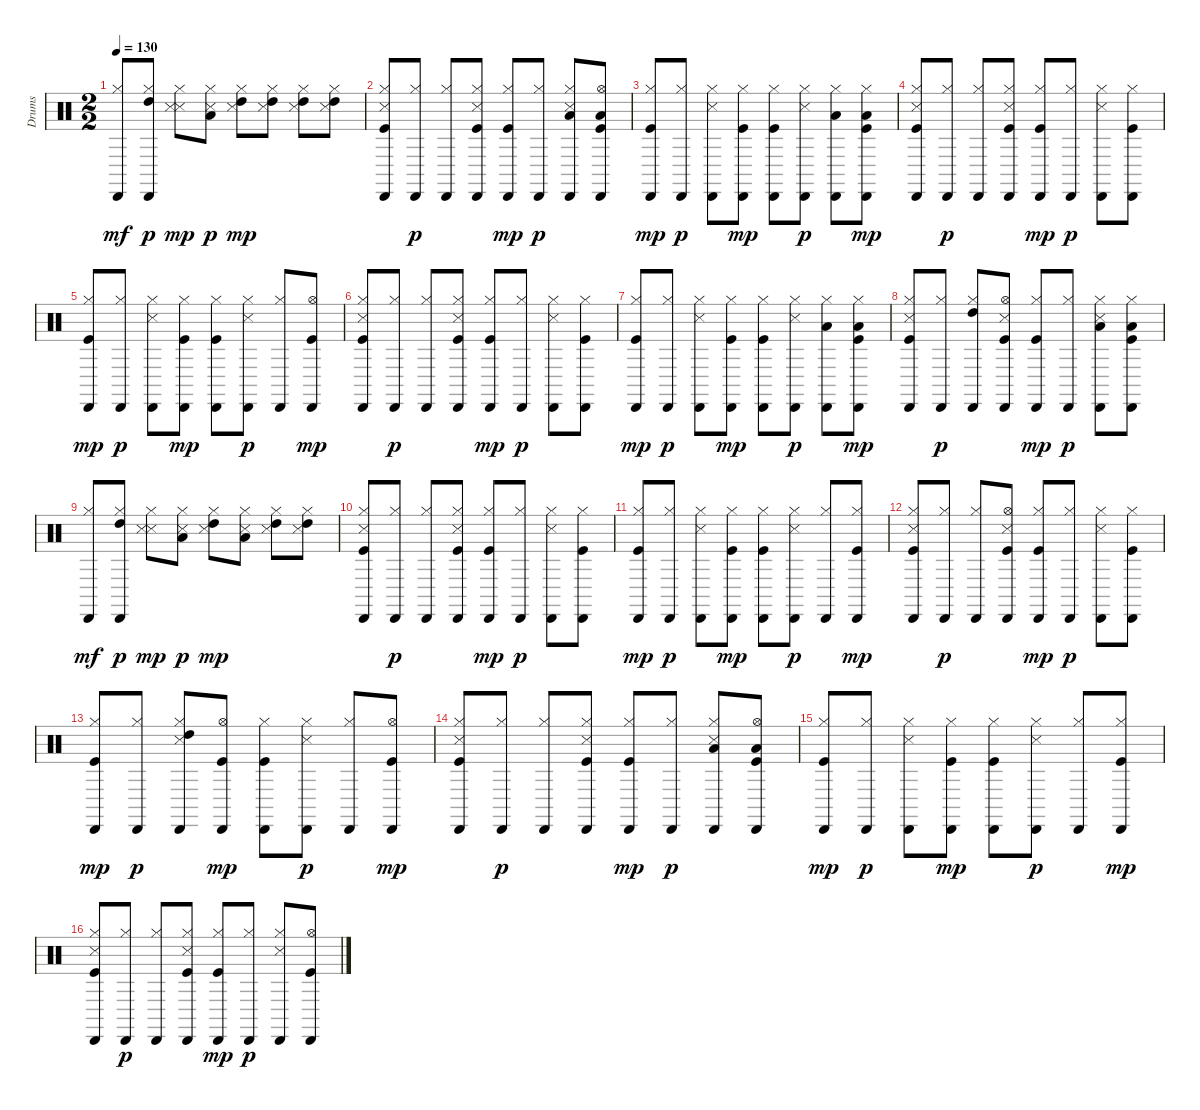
\track ("Drums" "Drums") {instrument percussion}
\staff {score}
\articulation defaults
\ts (2 2)
\tempo 130
\clef neutral
\ks c
("Hi-Hat (closed)" "Cabasa (hit)").8{dy mf} ("Hi-Hat (closed)" "High Tom (hit)" "Cabasa (hit)").8{dy p} ("Snare (side stick) 3" "Snare (side stick) 3" "Hi-Hat (closed)").8{dy mp} ("Snare (side stick) 3" "Hi-Hat (closed)" "Low Tom (hit)").8{dy p} ("Snare (side stick) 3" "Hi-Hat (closed)" "High Tom (hit)").8{dy mp} ("Snare (side stick) 3" "Hi-Hat (closed)" "High Tom (hit)").8 ("Snare (side stick) 3" "Hi-Hat (closed)" "High Tom (hit)").8 ("Snare (side stick) 3" "Hi-Hat (closed)" "High Tom (hit)").8 |
("Kick (hit)" "Snare (side stick) 3" "Hi-Hat (closed)" "Cabasa (hit)").8 ("Hi-Hat (closed)" "Cabasa (hit)").8{dy p} ("Hi-Hat (closed)" "Cabasa (hit)").8 ("Kick (hit)" "Snare (side stick) 3" "Hi-Hat (closed)" "Cabasa (hit)").8 ("Kick (hit)" "Hi-Hat (closed)" "Cabasa (hit)").8{dy mp} ("Hi-Hat (closed)" "Cabasa (hit)").8{dy p} ("Snare (side stick) 3" "Hi-Hat (closed)" "Low Tom (hit)" "Cabasa (hit)").8 ("Kick (hit)" "Low Tom (hit)" "Hi-Hat (open)" "Cabasa (hit)").8 |
("Kick (hit)" "Hi-Hat (closed)" "Cabasa (hit)").8{dy mp} ("Hi-Hat (closed)" "Cabasa (hit)").8{dy p} ("Snare (side stick) 3" "Hi-Hat (closed)" "Cabasa (hit)").8 ("Kick (hit)" "Hi-Hat (closed)" "Cabasa (hit)").8{dy mp} ("Kick (hit)" "Hi-Hat (closed)" "Cabasa (hit)").8 ("Snare (side stick) 3" "Hi-Hat (closed)" "Cabasa (hit)").8{dy p} ("Hi-Hat (closed)" "Low Tom (hit)" "Cabasa (hit)").8 ("Kick (hit)" "Hi-Hat (closed)" "Low Tom (hit)" "Cabasa (hit)").8{dy mp} |
("Kick (hit)" "Snare (side stick) 3" "Hi-Hat (closed)" "Cabasa (hit)").8 ("Hi-Hat (closed)" "Cabasa (hit)").8{dy p} ("Hi-Hat (closed)" "Cabasa (hit)").8 ("Kick (hit)" "Snare (side stick) 3" "Hi-Hat (closed)" "Cabasa (hit)").8 ("Kick (hit)" "Hi-Hat (closed)" "Cabasa (hit)").8{dy mp} ("Hi-Hat (closed)" "Cabasa (hit)").8{dy p} ("Snare (side stick) 3" "Hi-Hat (closed)" "Cabasa (hit)").8 ("Kick (hit)" "Hi-Hat (closed)" "Cabasa (hit)").8 |
("Kick (hit)" "Hi-Hat (closed)" "Cabasa (hit)").8{dy mp} ("Hi-Hat (closed)" "Cabasa (hit)").8{dy p} ("Snare (side stick) 3" "Hi-Hat (closed)" "Cabasa (hit)").8 ("Kick (hit)" "Hi-Hat (closed)" "Cabasa (hit)").8{dy mp} ("Kick (hit)" "Hi-Hat (closed)" "Cabasa (hit)").8 ("Snare (side stick) 3" "Hi-Hat (closed)" "Cabasa (hit)").8{dy p} ("Hi-Hat (closed)" "Cabasa (hit)").8 ("Kick (hit)" "Hi-Hat (open)" "Cabasa (hit)").8{dy mp} |
("Kick (hit)" "Snare (side stick) 3" "Hi-Hat (closed)" "Cabasa (hit)").8 ("Hi-Hat (closed)" "Cabasa (hit)").8{dy p} ("Hi-Hat (closed)" "Cabasa (hit)").8 ("Kick (hit)" "Snare (side stick) 3" "Hi-Hat (closed)" "Cabasa (hit)").8 ("Kick (hit)" "Hi-Hat (closed)" "Cabasa (hit)").8{dy mp} ("Hi-Hat (closed)" "Cabasa (hit)").8{dy p} ("Snare (side stick) 3" "Hi-Hat (closed)" "Cabasa (hit)").8 ("Kick (hit)" "Hi-Hat (closed)" "Cabasa (hit)").8 |
("Kick (hit)" "Hi-Hat (closed)" "Cabasa (hit)").8{dy mp} ("Hi-Hat (closed)" "Cabasa (hit)").8{dy p} ("Snare (side stick) 3" "Hi-Hat (closed)" "Cabasa (hit)").8 ("Kick (hit)" "Hi-Hat (closed)" "Cabasa (hit)").8{dy mp} ("Kick (hit)" "Hi-Hat (closed)" "Cabasa (hit)").8 ("Snare (side stick) 3" "Hi-Hat (closed)" "Cabasa (hit)").8{dy p} ("Hi-Hat (closed)" "Low Tom (hit)" "Cabasa (hit)").8 ("Kick (hit)" "Hi-Hat (closed)" "Low Tom (hit)" "Cabasa (hit)").8{dy mp} |
("Kick (hit)" "Snare (side stick) 3" "Hi-Hat (closed)" "Cabasa (hit)").8 ("Hi-Hat (closed)" "Cabasa (hit)").8{dy p} ("Hi-Hat (closed)" "High Tom (hit)" "Cabasa (hit)").8 ("Kick (hit)" "Snare (side stick) 3" "Hi-Hat (open)" "Cabasa (hit)").8 ("Kick (hit)" "Hi-Hat (closed)" "Cabasa (hit)").8{dy mp} ("Hi-Hat (closed)" "Cabasa (hit)").8{dy p} ("Snare (side stick) 3" "Hi-Hat (closed)" "Low Tom (hit)" "Cabasa (hit)").8 ("Kick (hit)" "Hi-Hat (closed)" "Low Tom (hit)" "Cabasa (hit)").8 |
("Hi-Hat (closed)" "Cabasa (hit)").8{dy mf} ("Hi-Hat (closed)" "High Tom (hit)" "Cabasa (hit)").8{dy p} ("Snare (side stick) 3" "Snare (side stick) 3" "Hi-Hat (closed)").8{dy mp} ("Snare (side stick) 3" "Hi-Hat (closed)" "Low Tom (hit)").8{dy p} ("Snare (side stick) 3" "Hi-Hat (closed)" "High Tom (hit)").8{dy mp} ("Snare (side stick) 3" "Hi-Hat (closed)" "Low Tom (hit)").8 ("Snare (side stick) 3" "Hi-Hat (closed)" "High Tom (hit)").8 ("Snare (side stick) 3" "Hi-Hat (closed)" "High Tom (hit)").8 |
("Kick (hit)" "Snare (side stick) 3" "Hi-Hat (closed)" "Cabasa (hit)").8 ("Hi-Hat (closed)" "Cabasa (hit)").8{dy p} ("Hi-Hat (closed)" "Cabasa (hit)").8 ("Kick (hit)" "Snare (side stick) 3" "Hi-Hat (closed)" "Cabasa (hit)").8 ("Kick (hit)" "Hi-Hat (closed)" "Cabasa (hit)").8{dy mp} ("Hi-Hat (closed)" "Cabasa (hit)").8{dy p} ("Snare (side stick) 3" "Hi-Hat (closed)" "Cabasa (hit)").8 ("Kick (hit)" "Hi-Hat (closed)" "Cabasa (hit)").8 |
("Kick (hit)" "Hi-Hat (closed)" "Cabasa (hit)").8{dy mp} ("Hi-Hat (closed)" "Cabasa (hit)").8{dy p} ("Snare (side stick) 3" "Hi-Hat (closed)" "Cabasa (hit)").8 ("Kick (hit)" "Hi-Hat (closed)" "Cabasa (hit)").8{dy mp} ("Kick (hit)" "Hi-Hat (closed)" "Cabasa (hit)").8 ("Snare (side stick) 3" "Hi-Hat (closed)" "Cabasa (hit)").8{dy p} ("Hi-Hat (closed)" "Cabasa (hit)").8 ("Kick (hit)" "Hi-Hat (closed)" "Cabasa (hit)").8{dy mp} |
("Kick (hit)" "Snare (side stick) 3" "Hi-Hat (closed)" "Cabasa (hit)").8 ("Hi-Hat (closed)" "Cabasa (hit)").8{dy p} ("Hi-Hat (closed)" "Cabasa (hit)").8 ("Kick (hit)" "Snare (side stick) 3" "Hi-Hat (open)" "Cabasa (hit)").8 ("Kick (hit)" "Hi-Hat (closed)" "Cabasa (hit)").8{dy mp} ("Hi-Hat (closed)" "Cabasa (hit)").8{dy p} ("Snare (side stick) 3" "Hi-Hat (closed)" "Cabasa (hit)").8 ("Kick (hit)" "Hi-Hat (closed)" "Cabasa (hit)").8 |
("Kick (hit)" "Hi-Hat (closed)" "Cabasa (hit)").8{dy mp} ("Hi-Hat (closed)" "Cabasa (hit)").8{dy p} ("Snare (side stick) 3" "Hi-Hat (closed)" "High Tom (hit)" "Cabasa (hit)").8 ("Kick (hit)" "Hi-Hat (open)" "Cabasa (hit)").8{dy mp} ("Kick (hit)" "Hi-Hat (closed)" "Cabasa (hit)").8 ("Snare (side stick) 3" "Hi-Hat (closed)" "Cabasa (hit)").8{dy p} ("Hi-Hat (closed)" "Cabasa (hit)").8 ("Kick (hit)" "Hi-Hat (open)" "Cabasa (hit)").8{dy mp} |
("Kick (hit)" "Snare (side stick) 3" "Hi-Hat (closed)" "Cabasa (hit)").8 ("Hi-Hat (closed)" "Cabasa (hit)").8{dy p} ("Hi-Hat (closed)" "Cabasa (hit)").8 ("Kick (hit)" "Snare (side stick) 3" "Hi-Hat (closed)" "Cabasa (hit)").8 ("Kick (hit)" "Hi-Hat (closed)" "Cabasa (hit)").8{dy mp} ("Hi-Hat (closed)" "Cabasa (hit)").8{dy p} ("Snare (side stick) 3" "Hi-Hat (closed)" "Low Tom (hit)" "Cabasa (hit)").8 ("Kick (hit)" "Low Tom (hit)" "Hi-Hat (open)" "Cabasa (hit)").8 |
("Kick (hit)" "Hi-Hat (closed)" "Cabasa (hit)").8{dy mp} ("Hi-Hat (closed)" "Cabasa (hit)").8{dy p} ("Snare (side stick) 3" "Hi-Hat (closed)" "Cabasa (hit)").8 ("Kick (hit)" "Hi-Hat (closed)" "Cabasa (hit)").8{dy mp} ("Kick (hit)" "Hi-Hat (closed)" "Cabasa (hit)").8 ("Snare (side stick) 3" "Hi-Hat (closed)" "Cabasa (hit)").8{dy p} ("Hi-Hat (closed)" "Cabasa (hit)").8 ("Kick (hit)" "Hi-Hat (closed)" "Cabasa (hit)").8{dy mp} |
("Kick (hit)" "Snare (side stick) 3" "Hi-Hat (closed)" "Cabasa (hit)").8 ("Hi-Hat (closed)" "Cabasa (hit)").8{dy p} ("Hi-Hat (closed)" "Cabasa (hit)").8 ("Kick (hit)" "Snare (side stick) 3" "Hi-Hat (closed)" "Cabasa (hit)").8 ("Kick (hit)" "Hi-Hat (closed)" "Cabasa (hit)").8{dy mp} ("Hi-Hat (closed)" "Cabasa (hit)").8{dy p} ("Snare (side stick) 3" "Hi-Hat (closed)" "Cabasa (hit)").8 ("Kick (hit)" "Hi-Hat (open)" "Cabasa (hit)").8
